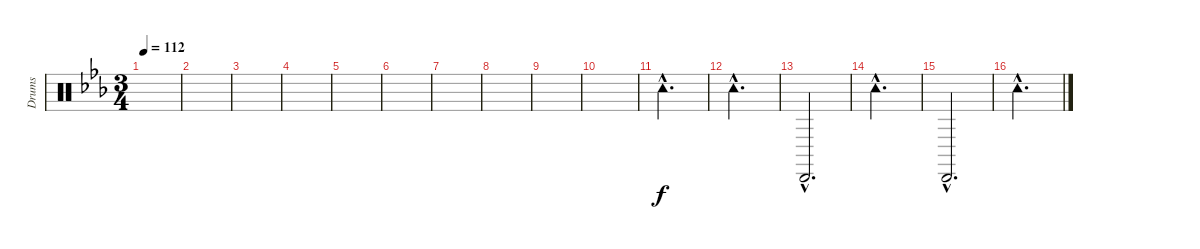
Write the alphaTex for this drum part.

\track ("Drums" "Drums") {instrument percussion}
\staff {score}
\articulation defaults
\ts (3 4)
\tempo 112
\clef neutral
\ks cminor
|
|
|
|
|
|
|
|
|
|
"Tambourine (hit)"{hac}.2{d} |
"Tambourine (hit)"{hac}.2{d} |
"Cabasa (hit)"{hac}.2{d} |
"Tambourine (hit)"{hac}.2{d} |
"Cabasa (hit)"{hac}.2{d} |
"Tambourine (hit)"{hac}.2{d}
